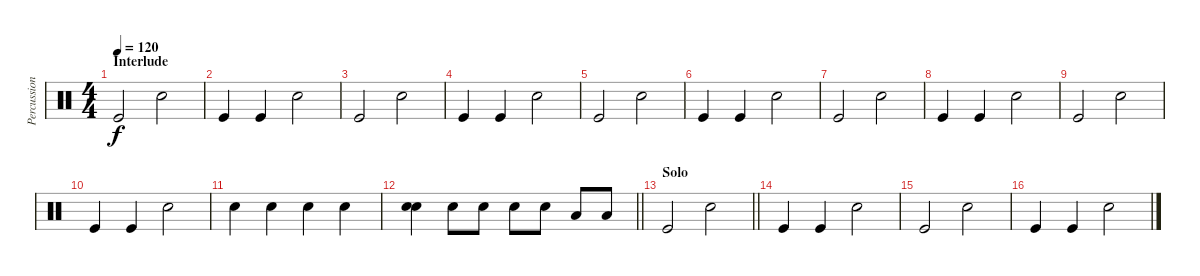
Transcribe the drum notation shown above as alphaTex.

\track ("Percussion" "Percussion") {instrument percussion}
\staff {score}
\articulation defaults
\ts (4 4)
\section ("" "Interlude")
\tempo 120
\clef neutral
\ks c "Kick (hit)".2{dy f} "Snare (hit) 2".2
|
"Kick (hit)".4 "Kick (hit)".4 "Snare (hit) 2".2 |
"Kick (hit)".2 "Snare (hit) 2".2 |
"Kick (hit)".4 "Kick (hit)".4 "Snare (hit) 2".2 |
"Kick (hit)".2 "Snare (hit) 2".2 |
"Kick (hit)".4 "Kick (hit)".4 "Snare (hit) 2".2 |
"Kick (hit)".2 "Snare (hit) 2".2 |
"Kick (hit)".4 "Kick (hit)".4 "Snare (hit) 2".2 |
"Kick (hit)".2 "Snare (hit) 2".2 |
"Kick (hit)".4 "Kick (hit)".4 "Snare (hit) 2".2 |
"Snare (hit) 2".4 "Snare (hit) 2".4 "Snare (hit) 2".4 "Snare (hit) 2".4 |
\barLineRight lightlight
("Snare (hit) 2" "Snare (hit) 2").4 "Snare (hit) 2".8 "Snare (hit) 2".8 "Snare (hit) 2".8 "Snare (hit) 2".8 "Low Tom (hit)".8 "Low Tom (hit)".8 |
\section ("" "Solo")
\barLineRight lightlight "Kick (hit)".2 "Snare (hit) 2".2
|
"Kick (hit)".4 "Kick (hit)".4 "Snare (hit) 2".2 |
"Kick (hit)".2 "Snare (hit) 2".2 |
"Kick (hit)".4 "Kick (hit)".4 "Snare (hit) 2".2
